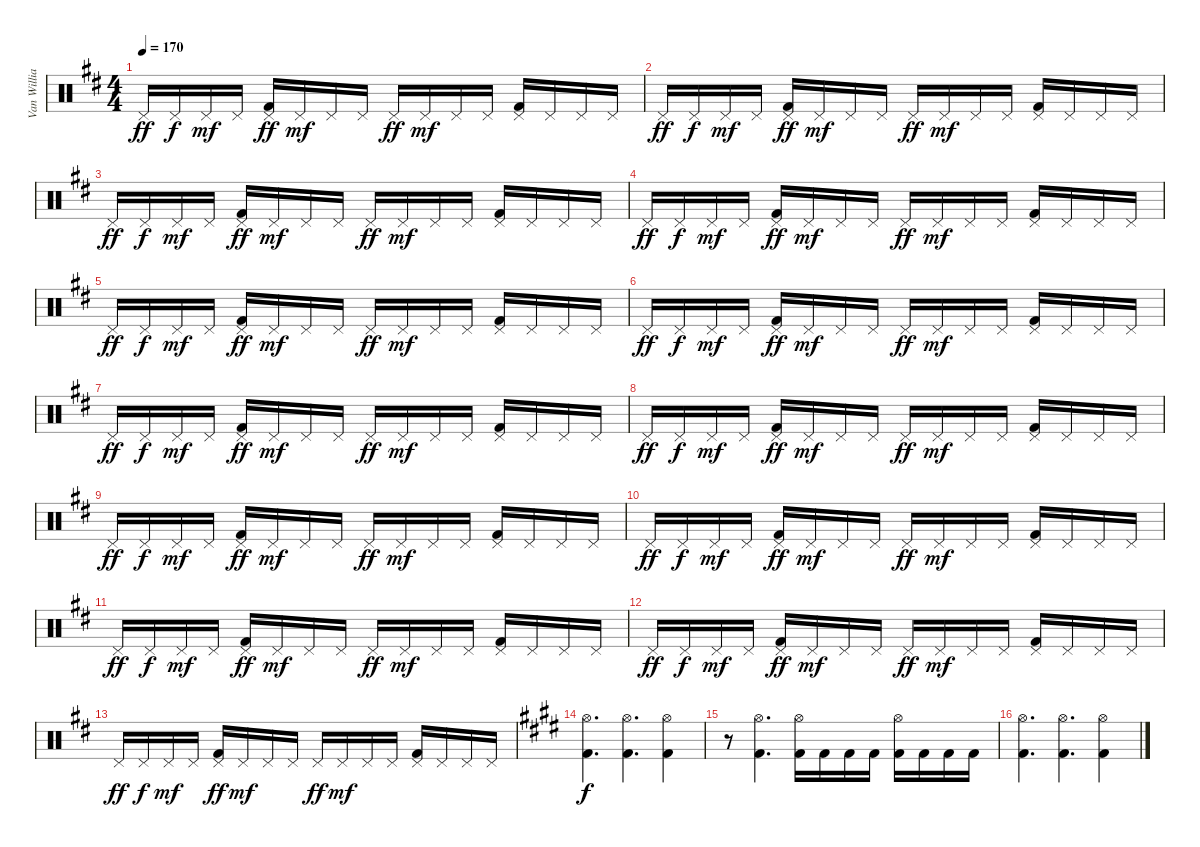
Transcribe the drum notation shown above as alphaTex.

\track ("Van Williams" "Van Willia") {instrument percussion}
\staff {score}
\articulation defaults
\ts (4 4)
\tempo 170
\clef neutral
\ks d "Pedal Hi-Hat (hit)".16{dy ff} "Pedal Hi-Hat (hit)".16{dy f} "Pedal Hi-Hat (hit)".16{dy mf} "Pedal Hi-Hat (hit)".16
("Pedal Hi-Hat (hit)" "Kick (hit) 2").16{dy ff} "Pedal Hi-Hat (hit)".16{dy mf} "Pedal Hi-Hat (hit)".16 "Pedal Hi-Hat (hit)".16 "Pedal Hi-Hat (hit)".16{dy ff} "Pedal Hi-Hat (hit)".16{dy mf} "Pedal Hi-Hat (hit)".16 "Pedal Hi-Hat (hit)".16 ("Pedal Hi-Hat (hit)" "Kick (hit) 2").16 "Pedal Hi-Hat (hit)".16 "Pedal Hi-Hat (hit)".16 "Pedal Hi-Hat (hit)".16 |
"Pedal Hi-Hat (hit)".16{dy ff} "Pedal Hi-Hat (hit)".16{dy f} "Pedal Hi-Hat (hit)".16{dy mf} "Pedal Hi-Hat (hit)".16 ("Pedal Hi-Hat (hit)" "Kick (hit) 2").16{dy ff} "Pedal Hi-Hat (hit)".16{dy mf} "Pedal Hi-Hat (hit)".16 "Pedal Hi-Hat (hit)".16 "Pedal Hi-Hat (hit)".16{dy ff} "Pedal Hi-Hat (hit)".16{dy mf} "Pedal Hi-Hat (hit)".16 "Pedal Hi-Hat (hit)".16 ("Pedal Hi-Hat (hit)" "Kick (hit) 2").16 "Pedal Hi-Hat (hit)".16 "Pedal Hi-Hat (hit)".16 "Pedal Hi-Hat (hit)".16 |
"Pedal Hi-Hat (hit)".16{dy ff} "Pedal Hi-Hat (hit)".16{dy f} "Pedal Hi-Hat (hit)".16{dy mf} "Pedal Hi-Hat (hit)".16 ("Pedal Hi-Hat (hit)" "Kick (hit) 2").16{dy ff} "Pedal Hi-Hat (hit)".16{dy mf} "Pedal Hi-Hat (hit)".16 "Pedal Hi-Hat (hit)".16 "Pedal Hi-Hat (hit)".16{dy ff} "Pedal Hi-Hat (hit)".16{dy mf} "Pedal Hi-Hat (hit)".16 "Pedal Hi-Hat (hit)".16 ("Pedal Hi-Hat (hit)" "Kick (hit) 2").16 "Pedal Hi-Hat (hit)".16 "Pedal Hi-Hat (hit)".16 "Pedal Hi-Hat (hit)".16 |
"Pedal Hi-Hat (hit)".16{dy ff} "Pedal Hi-Hat (hit)".16{dy f} "Pedal Hi-Hat (hit)".16{dy mf} "Pedal Hi-Hat (hit)".16 ("Pedal Hi-Hat (hit)" "Kick (hit) 2").16{dy ff} "Pedal Hi-Hat (hit)".16{dy mf} "Pedal Hi-Hat (hit)".16 "Pedal Hi-Hat (hit)".16 "Pedal Hi-Hat (hit)".16{dy ff} "Pedal Hi-Hat (hit)".16{dy mf} "Pedal Hi-Hat (hit)".16 "Pedal Hi-Hat (hit)".16 ("Pedal Hi-Hat (hit)" "Kick (hit) 2").16 "Pedal Hi-Hat (hit)".16 "Pedal Hi-Hat (hit)".16 "Pedal Hi-Hat (hit)".16 |
"Pedal Hi-Hat (hit)".16{dy ff} "Pedal Hi-Hat (hit)".16{dy f} "Pedal Hi-Hat (hit)".16{dy mf} "Pedal Hi-Hat (hit)".16 ("Pedal Hi-Hat (hit)" "Kick (hit) 2").16{dy ff} "Pedal Hi-Hat (hit)".16{dy mf} "Pedal Hi-Hat (hit)".16 "Pedal Hi-Hat (hit)".16 "Pedal Hi-Hat (hit)".16{dy ff} "Pedal Hi-Hat (hit)".16{dy mf} "Pedal Hi-Hat (hit)".16 "Pedal Hi-Hat (hit)".16 ("Pedal Hi-Hat (hit)" "Kick (hit) 2").16 "Pedal Hi-Hat (hit)".16 "Pedal Hi-Hat (hit)".16 "Pedal Hi-Hat (hit)".16 |
"Pedal Hi-Hat (hit)".16{dy ff} "Pedal Hi-Hat (hit)".16{dy f} "Pedal Hi-Hat (hit)".16{dy mf} "Pedal Hi-Hat (hit)".16 ("Pedal Hi-Hat (hit)" "Kick (hit) 2").16{dy ff} "Pedal Hi-Hat (hit)".16{dy mf} "Pedal Hi-Hat (hit)".16 "Pedal Hi-Hat (hit)".16 "Pedal Hi-Hat (hit)".16{dy ff} "Pedal Hi-Hat (hit)".16{dy mf} "Pedal Hi-Hat (hit)".16 "Pedal Hi-Hat (hit)".16 ("Pedal Hi-Hat (hit)" "Kick (hit) 2").16 "Pedal Hi-Hat (hit)".16 "Pedal Hi-Hat (hit)".16 "Pedal Hi-Hat (hit)".16 |
"Pedal Hi-Hat (hit)".16{dy ff} "Pedal Hi-Hat (hit)".16{dy f} "Pedal Hi-Hat (hit)".16{dy mf} "Pedal Hi-Hat (hit)".16 ("Pedal Hi-Hat (hit)" "Kick (hit) 2").16{dy ff} "Pedal Hi-Hat (hit)".16{dy mf} "Pedal Hi-Hat (hit)".16 "Pedal Hi-Hat (hit)".16 "Pedal Hi-Hat (hit)".16{dy ff} "Pedal Hi-Hat (hit)".16{dy mf} "Pedal Hi-Hat (hit)".16 "Pedal Hi-Hat (hit)".16 ("Pedal Hi-Hat (hit)" "Kick (hit) 2").16 "Pedal Hi-Hat (hit)".16 "Pedal Hi-Hat (hit)".16 "Pedal Hi-Hat (hit)".16 |
"Pedal Hi-Hat (hit)".16{dy ff} "Pedal Hi-Hat (hit)".16{dy f} "Pedal Hi-Hat (hit)".16{dy mf} "Pedal Hi-Hat (hit)".16 ("Pedal Hi-Hat (hit)" "Kick (hit) 2").16{dy ff} "Pedal Hi-Hat (hit)".16{dy mf} "Pedal Hi-Hat (hit)".16 "Pedal Hi-Hat (hit)".16 "Pedal Hi-Hat (hit)".16{dy ff} "Pedal Hi-Hat (hit)".16{dy mf} "Pedal Hi-Hat (hit)".16 "Pedal Hi-Hat (hit)".16 ("Pedal Hi-Hat (hit)" "Kick (hit) 2").16 "Pedal Hi-Hat (hit)".16 "Pedal Hi-Hat (hit)".16 "Pedal Hi-Hat (hit)".16 |
"Pedal Hi-Hat (hit)".16{dy ff} "Pedal Hi-Hat (hit)".16{dy f} "Pedal Hi-Hat (hit)".16{dy mf} "Pedal Hi-Hat (hit)".16 ("Pedal Hi-Hat (hit)" "Kick (hit) 2").16{dy ff} "Pedal Hi-Hat (hit)".16{dy mf} "Pedal Hi-Hat (hit)".16 "Pedal Hi-Hat (hit)".16 "Pedal Hi-Hat (hit)".16{dy ff} "Pedal Hi-Hat (hit)".16{dy mf} "Pedal Hi-Hat (hit)".16 "Pedal Hi-Hat (hit)".16 ("Pedal Hi-Hat (hit)" "Kick (hit) 2").16 "Pedal Hi-Hat (hit)".16 "Pedal Hi-Hat (hit)".16 "Pedal Hi-Hat (hit)".16 |
"Pedal Hi-Hat (hit)".16{dy ff} "Pedal Hi-Hat (hit)".16{dy f} "Pedal Hi-Hat (hit)".16{dy mf} "Pedal Hi-Hat (hit)".16 ("Pedal Hi-Hat (hit)" "Kick (hit) 2").16{dy ff} "Pedal Hi-Hat (hit)".16{dy mf} "Pedal Hi-Hat (hit)".16 "Pedal Hi-Hat (hit)".16 "Pedal Hi-Hat (hit)".16{dy ff} "Pedal Hi-Hat (hit)".16{dy mf} "Pedal Hi-Hat (hit)".16 "Pedal Hi-Hat (hit)".16 ("Pedal Hi-Hat (hit)" "Kick (hit) 2").16 "Pedal Hi-Hat (hit)".16 "Pedal Hi-Hat (hit)".16 "Pedal Hi-Hat (hit)".16 |
"Pedal Hi-Hat (hit)".16{dy ff} "Pedal Hi-Hat (hit)".16{dy f} "Pedal Hi-Hat (hit)".16{dy mf} "Pedal Hi-Hat (hit)".16 ("Pedal Hi-Hat (hit)" "Kick (hit) 2").16{dy ff} "Pedal Hi-Hat (hit)".16{dy mf} "Pedal Hi-Hat (hit)".16 "Pedal Hi-Hat (hit)".16 "Pedal Hi-Hat (hit)".16{dy ff} "Pedal Hi-Hat (hit)".16{dy mf} "Pedal Hi-Hat (hit)".16 "Pedal Hi-Hat (hit)".16 ("Pedal Hi-Hat (hit)" "Kick (hit) 2").16 "Pedal Hi-Hat (hit)".16 "Pedal Hi-Hat (hit)".16 "Pedal Hi-Hat (hit)".16 |
"Pedal Hi-Hat (hit)".16{dy ff} "Pedal Hi-Hat (hit)".16{dy f} "Pedal Hi-Hat (hit)".16{dy mf} "Pedal Hi-Hat (hit)".16 ("Pedal Hi-Hat (hit)" "Kick (hit) 2").16{dy ff} "Pedal Hi-Hat (hit)".16{dy mf} "Pedal Hi-Hat (hit)".16 "Pedal Hi-Hat (hit)".16 "Pedal Hi-Hat (hit)".16{dy ff} "Pedal Hi-Hat (hit)".16{dy mf} "Pedal Hi-Hat (hit)".16 "Pedal Hi-Hat (hit)".16 ("Pedal Hi-Hat (hit)" "Kick (hit) 2").16 "Pedal Hi-Hat (hit)".16 "Pedal Hi-Hat (hit)".16 "Pedal Hi-Hat (hit)".16 |
"Pedal Hi-Hat (hit)".16{dy ff} "Pedal Hi-Hat (hit)".16{dy f} "Pedal Hi-Hat (hit)".16{dy mf} "Pedal Hi-Hat (hit)".16 ("Pedal Hi-Hat (hit)" "Kick (hit) 2").16{dy ff} "Pedal Hi-Hat (hit)".16{dy mf} "Pedal Hi-Hat (hit)".16 "Pedal Hi-Hat (hit)".16 "Pedal Hi-Hat (hit)".16{dy ff} "Pedal Hi-Hat (hit)".16{dy mf} "Pedal Hi-Hat (hit)".16 "Pedal Hi-Hat (hit)".16 ("Pedal Hi-Hat (hit)" "Kick (hit) 2").16 "Pedal Hi-Hat (hit)".16 "Pedal Hi-Hat (hit)".16 "Pedal Hi-Hat (hit)".16 |
\ks e
("Hi-Hat (open)" "Kick (hit) 2").4{d dy f} ("Hi-Hat (open)" "Kick (hit) 2").4{d} ("Hi-Hat (open)" "Kick (hit) 2").4 |
r.8 ("Hi-Hat (open)" "Kick (hit) 2").4{d} ("Hi-Hat (open)" "Kick (hit) 2").16 "Kick (hit) 2".16 "Kick (hit) 2".16 "Kick (hit) 2".16 ("Hi-Hat (open)" "Kick (hit) 2").16 "Kick (hit) 2".16 "Kick (hit) 2".16 "Kick (hit) 2".16 |
("Hi-Hat (open)" "Kick (hit) 2").4{d} ("Hi-Hat (open)" "Kick (hit) 2").4{d} ("Hi-Hat (open)" "Kick (hit) 2").4
